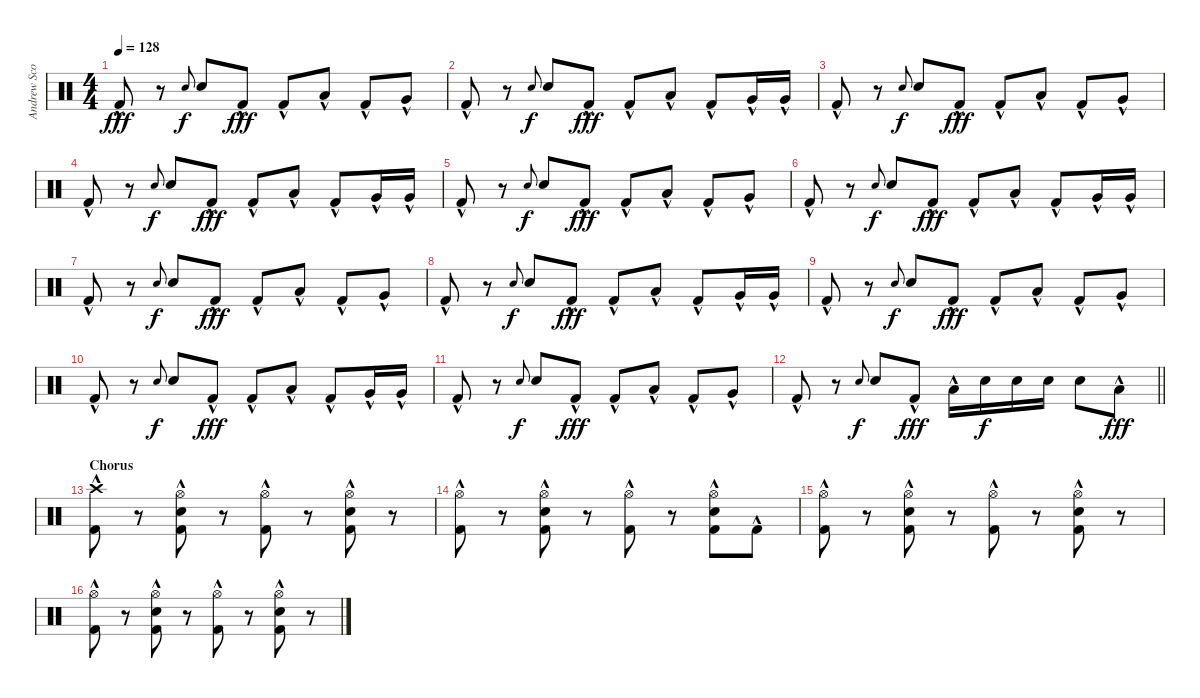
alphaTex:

\track ("Andrew Scott" "Andrew Sco") {instrument percussion}
\staff {score}
\articulation defaults
\ts (4 4)
\tempo 128
\clef neutral
\ks c "Kick (hit) 2"{hac}.8{dy fff}
r.8 "Snare (hit) 2".8{gr onbeat dy f} "Snare (hit) 2".8 "Kick (hit) 2"{hac}.8{dy fff} "Kick (hit) 2"{hac}.8 "Low Tom (hit)"{hac}.8 "Kick (hit) 2"{hac}.8 "Very Low Tom (hit)"{hac}.8 |
"Kick (hit) 2"{hac}.8 r.8 "Snare (hit) 2".8{gr onbeat dy f} "Snare (hit) 2".8 "Kick (hit) 2"{hac}.8{dy fff} "Kick (hit) 2"{hac}.8 "Low Tom (hit)"{hac}.8 "Kick (hit) 2"{hac}.8 "Very Low Tom (hit)"{hac}.16 "Very Low Tom (hit)"{hac}.16 |
"Kick (hit) 2"{hac}.8 r.8 "Snare (hit) 2".8{gr onbeat dy f} "Snare (hit) 2".8 "Kick (hit) 2"{hac}.8{dy fff} "Kick (hit) 2"{hac}.8 "Low Tom (hit)"{hac}.8 "Kick (hit) 2"{hac}.8 "Very Low Tom (hit)"{hac}.8 |
"Kick (hit) 2"{hac}.8 r.8 "Snare (hit) 2".8{gr onbeat dy f} "Snare (hit) 2".8 "Kick (hit) 2"{hac}.8{dy fff} "Kick (hit) 2"{hac}.8 "Low Tom (hit)"{hac}.8 "Kick (hit) 2"{hac}.8 "Very Low Tom (hit)"{hac}.16 "Very Low Tom (hit)"{hac}.16 |
"Kick (hit) 2"{hac}.8 r.8 "Snare (hit) 2".8{gr onbeat dy f} "Snare (hit) 2".8 "Kick (hit) 2"{hac}.8{dy fff} "Kick (hit) 2"{hac}.8 "Low Tom (hit)"{hac}.8 "Kick (hit) 2"{hac}.8 "Very Low Tom (hit)"{hac}.8 |
"Kick (hit) 2"{hac}.8 r.8 "Snare (hit) 2".8{gr onbeat dy f} "Snare (hit) 2".8 "Kick (hit) 2"{hac}.8{dy fff} "Kick (hit) 2"{hac}.8 "Low Tom (hit)"{hac}.8 "Kick (hit) 2"{hac}.8 "Very Low Tom (hit)"{hac}.16 "Very Low Tom (hit)"{hac}.16 |
"Kick (hit) 2"{hac}.8 r.8 "Snare (hit) 2".8{gr onbeat dy f} "Snare (hit) 2".8 "Kick (hit) 2"{hac}.8{dy fff} "Kick (hit) 2"{hac}.8 "Low Tom (hit)"{hac}.8 "Kick (hit) 2"{hac}.8 "Very Low Tom (hit)"{hac}.8 |
"Kick (hit) 2"{hac}.8 r.8 "Snare (hit) 2".8{gr onbeat dy f} "Snare (hit) 2".8 "Kick (hit) 2"{hac}.8{dy fff} "Kick (hit) 2"{hac}.8 "Low Tom (hit)"{hac}.8 "Kick (hit) 2"{hac}.8 "Very Low Tom (hit)"{hac}.16 "Very Low Tom (hit)"{hac}.16 |
"Kick (hit) 2"{hac}.8 r.8 "Snare (hit) 2".8{gr onbeat dy f} "Snare (hit) 2".8 "Kick (hit) 2"{hac}.8{dy fff} "Kick (hit) 2"{hac}.8 "Low Tom (hit)"{hac}.8 "Kick (hit) 2"{hac}.8 "Very Low Tom (hit)"{hac}.8 |
"Kick (hit) 2"{hac}.8 r.8 "Snare (hit) 2".8{gr onbeat dy f} "Snare (hit) 2".8 "Kick (hit) 2"{hac}.8{dy fff} "Kick (hit) 2"{hac}.8 "Low Tom (hit)"{hac}.8 "Kick (hit) 2"{hac}.8 "Very Low Tom (hit)"{hac}.16 "Very Low Tom (hit)"{hac}.16 |
"Kick (hit) 2"{hac}.8 r.8 "Snare (hit) 2".8{gr onbeat dy f} "Snare (hit) 2".8 "Kick (hit) 2"{hac}.8{dy fff} "Kick (hit) 2"{hac}.8 "Low Tom (hit)"{hac}.8 "Kick (hit) 2"{hac}.8 "Very Low Tom (hit)"{hac}.8 |
\barLineRight lightlight "Kick (hit) 2"{hac}.8
r.8 "Snare (hit) 2".8{gr onbeat dy f} "Snare (hit) 2".8 "Kick (hit) 2"{hac}.8{dy fff} "Low Tom (hit)"{hac}.16 "Snare (hit) 2".16{dy f} "Snare (hit) 2".16 "Snare (hit) 2".16 "Snare (hit) 2".8 "Low Tom (hit)"{hac}.8{dy fff} |
\section ("" "Chorus")
("Crash high (hit)" "Kick (hit) 2"{hac}).8 r.8 ("Hi-Hat (open)" "Snare (hit) 2" "Kick (hit) 2"{hac}).8 r.8 ("Hi-Hat (open)" "Kick (hit) 2"{hac}).8 r.8 ("Hi-Hat (open)" "Snare (hit) 2" "Kick (hit) 2"{hac}).8 r.8 |
("Hi-Hat (open)" "Kick (hit) 2"{hac}).8 r.8 ("Hi-Hat (open)" "Snare (hit) 2" "Kick (hit) 2"{hac}).8 r.8 ("Hi-Hat (open)" "Kick (hit) 2"{hac}).8 r.8 ("Hi-Hat (open)" "Snare (hit) 2" "Kick (hit) 2"{hac}).8 "Kick (hit) 2"{hac}.8 |
("Hi-Hat (open)" "Kick (hit) 2"{hac}).8 r.8 ("Hi-Hat (open)" "Snare (hit) 2" "Kick (hit) 2"{hac}).8 r.8 ("Hi-Hat (open)" "Kick (hit) 2"{hac}).8 r.8 ("Hi-Hat (open)" "Snare (hit) 2" "Kick (hit) 2"{hac}).8 r.8 |
("Hi-Hat (open)" "Kick (hit) 2"{hac}).8 r.8 ("Hi-Hat (open)" "Snare (hit) 2" "Kick (hit) 2"{hac}).8 r.8 ("Hi-Hat (open)" "Kick (hit) 2"{hac}).8 r.8 ("Hi-Hat (open)" "Snare (hit) 2" "Kick (hit) 2"{hac}).8 r.8
